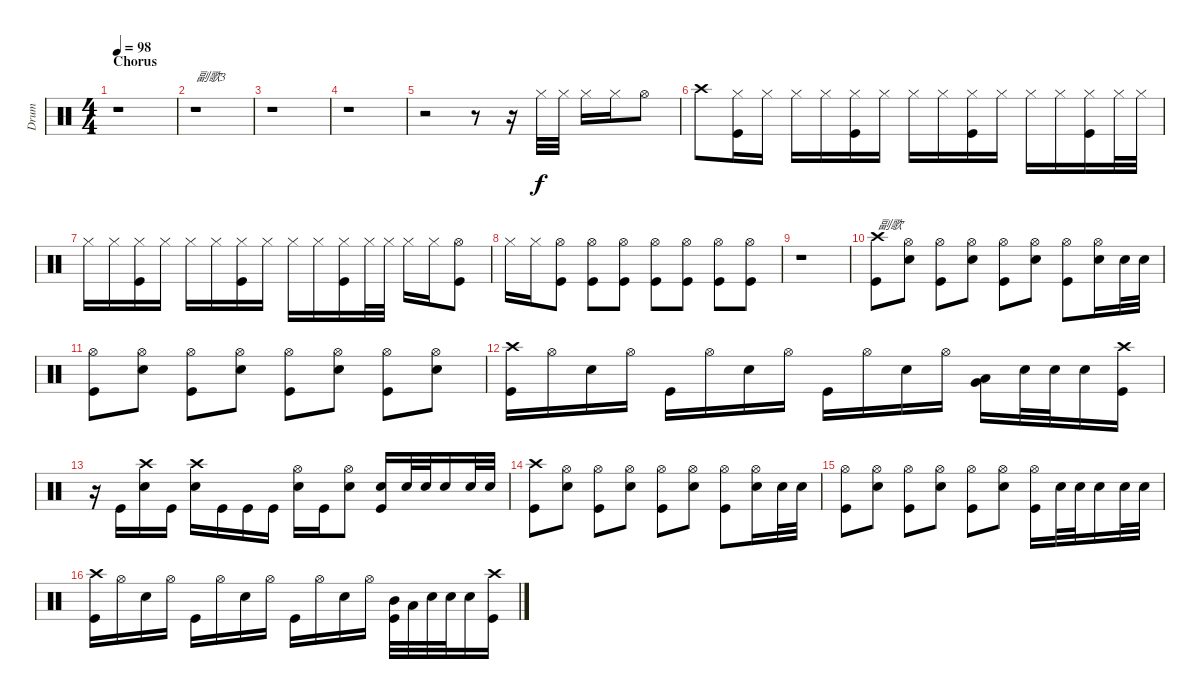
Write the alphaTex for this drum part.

\track ("Drum" "Drum") {instrument percussion}
\staff {score}
\articulation defaults
\ts (4 4)
\section ("" "Chorus")
\tempo 98
\clef neutral
\ks c
r.1{dy f} |
r.1{txt "副歌3"} |
r.1 |
r.1 |
r.2 r.8 r.16 "Hi-Hat (closed)".32 "Hi-Hat (closed)".32 "Hi-Hat (closed)".16 "Hi-Hat (closed)".16 "Hi-Hat (open)".8 |
"Crash high (hit)".8 ("Hi-Hat (closed)" "Kick (hit)").16 "Hi-Hat (closed)".16 "Hi-Hat (closed)".16 "Hi-Hat (closed)".16 ("Kick (hit)" "Hi-Hat (closed)").16 "Hi-Hat (closed)".16 "Hi-Hat (closed)".16 "Hi-Hat (closed)".16 ("Kick (hit)" "Hi-Hat (closed)").16 "Hi-Hat (closed)".16 "Hi-Hat (closed)".16 "Hi-Hat (closed)".16 ("Kick (hit)" "Hi-Hat (closed)").16 "Hi-Hat (closed)".32 "Hi-Hat (closed)".32 |
"Hi-Hat (closed)".16 "Hi-Hat (closed)".16 ("Kick (hit)" "Hi-Hat (closed)").16 "Hi-Hat (closed)".16 "Hi-Hat (closed)".16 "Hi-Hat (closed)".16 ("Kick (hit)" "Hi-Hat (closed)").16 "Hi-Hat (closed)".16 "Hi-Hat (closed)".16 "Hi-Hat (closed)".16 ("Kick (hit)" "Hi-Hat (closed)").16 "Hi-Hat (closed)".32 "Hi-Hat (closed)".32 "Hi-Hat (closed)".16 "Hi-Hat (closed)".16 ("Kick (hit)" "Hi-Hat (open)").8 |
"Hi-Hat (closed)".16 "Hi-Hat (closed)".16 ("Kick (hit)" "Hi-Hat (open)").8 ("Kick (hit)" "Hi-Hat (open)").8 ("Kick (hit)" "Hi-Hat (open)").8 ("Kick (hit)" "Hi-Hat (open)").8 ("Kick (hit)" "Hi-Hat (open)").8 ("Kick (hit)" "Hi-Hat (open)").8 ("Kick (hit)" "Hi-Hat (open)").8 |
r.1 |
("Crash high (hit)" "Kick (hit)").8{txt "副歌"} ("Hi-Hat (open)" "Snare (hit) 2").8 ("Hi-Hat (open)" "Kick (hit)").8 ("Snare (hit) 2" "Hi-Hat (open)").8 ("Hi-Hat (open)" "Kick (hit)").8 ("Snare (hit) 2" "Hi-Hat (open)").8 ("Hi-Hat (open)" "Kick (hit)").8 ("Snare (hit) 2" "Hi-Hat (open)").16 "Snare (hit) 2".32 "Snare (hit) 2".32 |
("Hi-Hat (open)" "Kick (hit)").8 ("Snare (hit) 2" "Hi-Hat (open)").8 ("Hi-Hat (open)" "Kick (hit)").8 ("Snare (hit) 2" "Hi-Hat (open)").8 ("Hi-Hat (open)" "Kick (hit)").8 ("Snare (hit) 2" "Hi-Hat (open)").8 ("Hi-Hat (open)" "Kick (hit)").8 ("Snare (hit) 2" "Hi-Hat (open)").8 |
("Crash high (hit)" "Kick (hit)").16 "Hi-Hat (open)".16 "Snare (hit) 2".16 "Hi-Hat (open)".16 "Kick (hit)".16 "Hi-Hat (open)".16 "Snare (hit) 2".16 "Hi-Hat (open)".16 "Kick (hit)".16 "Hi-Hat (open)".16 "Snare (hit) 2".16 "Hi-Hat (open)".16 ("Low Tom (hit)" "Very Low Tom (hit)").16 "Snare (hit) 2".32 "Snare (hit) 2".32 "Snare (hit) 2".16 ("Kick (hit)" "Crash high (hit)").16 |
r.16 "Kick (hit)".16 ("Snare (hit) 2" "Crash high (hit)").16 "Kick (hit)".16 ("Snare (hit) 2" "Crash high (hit)").16 "Kick (hit)".16 "Kick (hit)".16 "Kick (hit)".16 ("Snare (hit) 2" "Hi-Hat (open)").16 "Kick (hit)".16 ("Snare (hit) 2" "Hi-Hat (open)").8 ("Snare (hit) 2" "Kick (hit)").16 "Snare (hit) 2".32 "Snare (hit) 2".32 "Snare (hit) 2".16 "Snare (hit) 2".32 "Snare (hit) 2".32 |
("Crash high (hit)" "Kick (hit)").8 ("Snare (hit) 2" "Hi-Hat (open)").8 ("Kick (hit)" "Hi-Hat (open)").8 ("Snare (hit) 2" "Hi-Hat (open)").8 ("Kick (hit)" "Hi-Hat (open)").8 ("Snare (hit) 2" "Hi-Hat (open)").8 ("Hi-Hat (open)" "Kick (hit)").8 ("Snare (hit) 2" "Hi-Hat (open)").16 "Snare (hit) 2".32 "Snare (hit) 2".32 |
("Kick (hit)" "Hi-Hat (open)").8 ("Snare (hit) 2" "Hi-Hat (open)").8 ("Kick (hit)" "Hi-Hat (open)").8 ("Snare (hit) 2" "Hi-Hat (open)").8 ("Kick (hit)" "Hi-Hat (open)").8 ("Snare (hit) 2" "Hi-Hat (open)").8 ("Kick (hit)" "Hi-Hat (open)").16 "Snare (hit) 2".32 "Snare (hit) 2".32 "Snare (hit) 2".16 "Snare (hit) 2".32 "Snare (hit) 2".32 |
("Crash high (hit)" "Kick (hit)").16 "Hi-Hat (open)".16 "Snare (hit) 2".16 "Hi-Hat (open)".16 "Kick (hit)".16 "Hi-Hat (open)".16 "Snare (hit) 2".16 "Hi-Hat (open)".16 "Kick (hit)".16 "Hi-Hat (open)".16 "Snare (hit) 2".16 "Hi-Hat (open)".16 ("Mid Tom (hit)" "Kick (hit)").32 "Low Tom (hit)".32 "Snare (hit) 2".32 "Snare (hit) 2".32 "Snare (hit) 2".16 ("Kick (hit)" "Crash high (hit)").16
